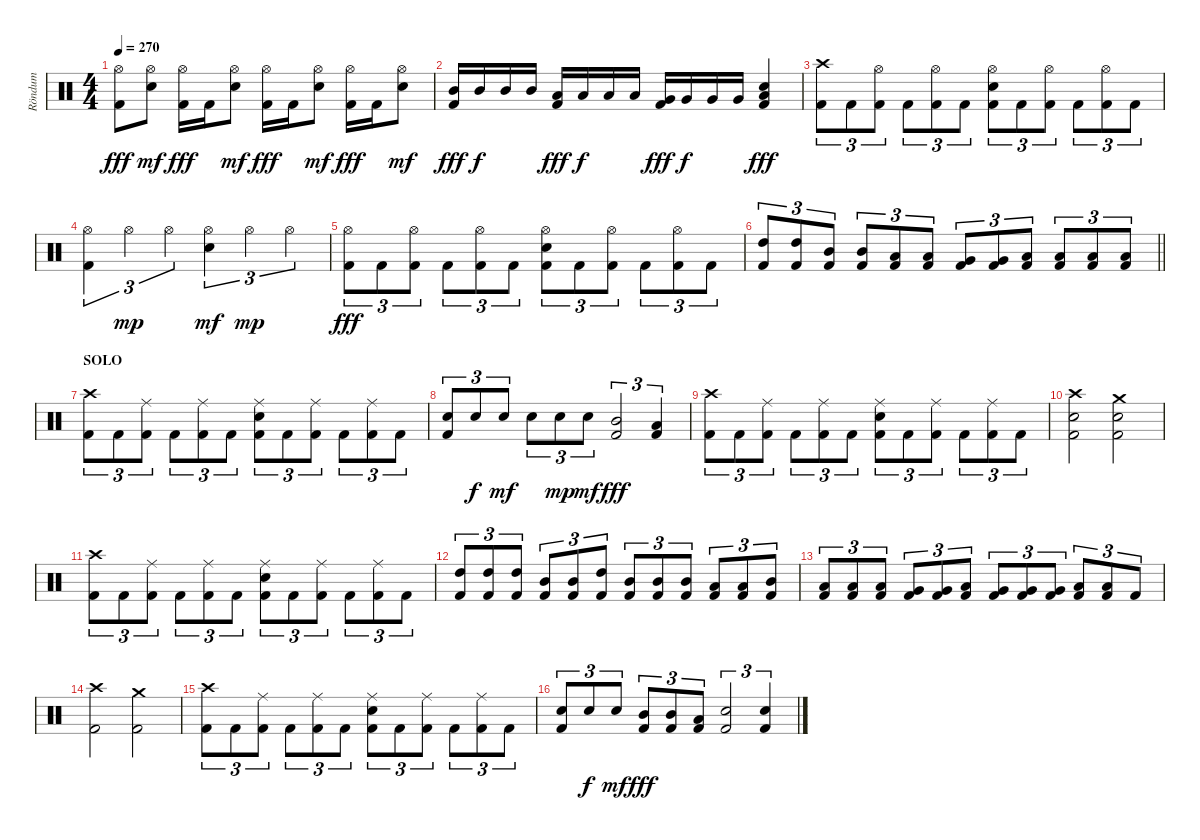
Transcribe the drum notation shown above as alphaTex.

\track ("Röndum" "Röndum") {instrument percussion}
\staff {score}
\articulation defaults
\ts (4 4)
\tempo 270
\clef neutral
\ks c
("Hi-Hat (open)" "Kick (hit) 2").8{dy fff} ("Hi-Hat (open)" "Snare (hit) 2").8{dy mf} ("Hi-Hat (open)" "Kick (hit) 2").16{dy fff} "Kick (hit) 2".16 ("Hi-Hat (open)" "Snare (hit) 2").8{dy mf} ("Hi-Hat (open)" "Kick (hit) 2").16{dy fff} "Kick (hit) 2".16 ("Hi-Hat (open)" "Snare (hit) 2").8{dy mf} ("Hi-Hat (open)" "Kick (hit) 2").16{dy fff} "Kick (hit) 2".16 ("Hi-Hat (open)" "Snare (hit) 2").8{dy mf} |
("Mid Tom (hit)" "Kick (hit) 2").16{dy fff} "Mid Tom (hit)".16{dy f} "Mid Tom (hit)".16 "Mid Tom (hit)".16 ("Low Tom (hit)" "Kick (hit) 2").16{dy fff} "Low Tom (hit)".16{dy f} "Low Tom (hit)".16 "Low Tom (hit)".16 ("Very Low Tom (hit)" "Kick (hit) 2").16{dy fff} "Very Low Tom (hit)".16{dy f} "Very Low Tom (hit)".16 "Very Low Tom (hit)".16 ("Low Floor Tom (hit)" "Snare (hit) 2" "Kick (hit) 2").4{dy fff} |
("Crash high (hit)" "Kick (hit) 2").8{tu (3 2)} "Kick (hit) 2".8{tu (3 2)} ("Hi-Hat (open)" "Kick (hit) 2").8{tu (3 2)} "Kick (hit) 2".8{tu (3 2)} ("Hi-Hat (open)" "Kick (hit) 2").8{tu (3 2)} "Kick (hit) 2".8{tu (3 2)} ("Hi-Hat (open)" "Snare (hit) 2" "Kick (hit) 2").8{tu (3 2)} "Kick (hit) 2".8{tu (3 2)} ("Hi-Hat (open)" "Kick (hit) 2").8{tu (3 2)} "Kick (hit) 2".8{tu (3 2)} ("Hi-Hat (open)" "Kick (hit) 2").8{tu (3 2)} "Kick (hit) 2".8{tu (3 2)} |
("Hi-Hat (open)" "Kick (hit) 2").4{tu (3 2)} "Hi-Hat (open)".4{tu (3 2) dy mp} "Hi-Hat (open)".4{tu (3 2)} ("Hi-Hat (open)" "Snare (hit) 2").4{tu (3 2) dy mf} "Hi-Hat (open)".4{tu (3 2) dy mp} "Hi-Hat (open)".4{tu (3 2)} |
("Hi-Hat (open)" "Kick (hit) 2").8{tu (3 2) dy fff} "Kick (hit) 2".8{tu (3 2)} ("Hi-Hat (open)" "Kick (hit) 2").8{tu (3 2)} "Kick (hit) 2".8{tu (3 2)} ("Hi-Hat (open)" "Kick (hit) 2").8{tu (3 2)} "Kick (hit) 2".8{tu (3 2)} ("Hi-Hat (open)" "Snare (hit) 2" "Kick (hit) 2").8{tu (3 2)} "Kick (hit) 2".8{tu (3 2)} ("Hi-Hat (open)" "Kick (hit) 2").8{tu (3 2)} "Kick (hit) 2".8{tu (3 2)} ("Hi-Hat (open)" "Kick (hit) 2").8{tu (3 2)} "Kick (hit) 2".8{tu (3 2)} |
\barLineRight lightlight
("High Tom (hit)" "Kick (hit) 2").8{tu (3 2)} ("High Tom (hit)" "Kick (hit) 2").8{tu (3 2)} ("Mid Tom (hit)" "Kick (hit) 2").8{tu (3 2)} ("Mid Tom (hit)" "Kick (hit) 2").8{tu (3 2)} ("Low Tom (hit)" "Kick (hit) 2").8{tu (3 2)} ("Low Tom (hit)" "Kick (hit) 2").8{tu (3 2)} ("Very Low Tom (hit)" "Kick (hit) 2").8{tu (3 2)} ("Very Low Tom (hit)" "Kick (hit) 2").8{tu (3 2)} ("Low Floor Tom (hit)" "Kick (hit) 2").8{tu (3 2)} ("Low Floor Tom (hit)" "Kick (hit) 2").8{tu (3 2)} ("Low Floor Tom (hit)" "Kick (hit) 2").8{tu (3 2)} ("Low Floor Tom (hit)" "Kick (hit) 2").8{tu (3 2)} |
\section ("" "SOLO")
("Crash high (hit)" "Kick (hit) 2").8{tu (3 2)} "Kick (hit) 2".8{tu (3 2)} ("Ride (middle)" "Kick (hit) 2").8{tu (3 2)} "Kick (hit) 2".8{tu (3 2)} ("Ride (middle)" "Kick (hit) 2").8{tu (3 2)} "Kick (hit) 2".8{tu (3 2)} ("Ride (middle)" "Snare (hit) 2" "Kick (hit) 2").8{tu (3 2)} "Kick (hit) 2".8{tu (3 2)} ("Ride (middle)" "Kick (hit) 2").8{tu (3 2)} "Kick (hit) 2".8{tu (3 2)} ("Ride (middle)" "Kick (hit) 2").8{tu (3 2)} "Kick (hit) 2".8{tu (3 2)} |
("Snare (hit) 2" "Kick (hit) 2").8{tu (3 2)} "Snare (hit) 2".8{tu (3 2) dy f} "Snare (hit) 2".8{tu (3 2) dy mf} "Snare (hit) 2".8{tu (3 2)} "Snare (hit) 2".8{tu (3 2) dy mp} "Snare (hit) 2".8{tu (3 2) dy mf} ("Mid Tom (hit)" "Kick (hit) 2").2{tu (3 2) dy fff} ("Low Tom (hit)" "Kick (hit) 2").4{tu (3 2)} |
("Crash high (hit)" "Kick (hit) 2").8{tu (3 2)} "Kick (hit) 2".8{tu (3 2)} ("Ride (middle)" "Kick (hit) 2").8{tu (3 2)} "Kick (hit) 2".8{tu (3 2)} ("Ride (middle)" "Kick (hit) 2").8{tu (3 2)} "Kick (hit) 2".8{tu (3 2)} ("Ride (middle)" "Snare (hit) 2" "Kick (hit) 2").8{tu (3 2)} "Kick (hit) 2".8{tu (3 2)} ("Ride (middle)" "Kick (hit) 2").8{tu (3 2)} "Kick (hit) 2".8{tu (3 2)} ("Ride (middle)" "Kick (hit) 2").8{tu (3 2)} "Kick (hit) 2".8{tu (3 2)} |
("Crash high (hit)" "Snare (hit) 2" "Kick (hit) 2").2 ("Crash medium (hit)" "Snare (hit) 2" "Kick (hit) 2").2 |
("Crash high (hit)" "Kick (hit) 2").8{tu (3 2)} "Kick (hit) 2".8{tu (3 2)} ("Ride (middle)" "Kick (hit) 2").8{tu (3 2)} "Kick (hit) 2".8{tu (3 2)} ("Ride (middle)" "Kick (hit) 2").8{tu (3 2)} "Kick (hit) 2".8{tu (3 2)} ("Ride (middle)" "Snare (hit) 2" "Kick (hit) 2").8{tu (3 2)} "Kick (hit) 2".8{tu (3 2)} ("Ride (middle)" "Kick (hit) 2").8{tu (3 2)} "Kick (hit) 2".8{tu (3 2)} ("Ride (middle)" "Kick (hit) 2").8{tu (3 2)} "Kick (hit) 2".8{tu (3 2)} |
("High Tom (hit)" "Kick (hit) 2").8{tu (3 2)} ("High Tom (hit)" "Kick (hit) 2").8{tu (3 2)} ("High Tom (hit)" "Kick (hit) 2").8{tu (3 2)} ("Mid Tom (hit)" "Kick (hit) 2").8{tu (3 2)} ("Mid Tom (hit)" "Kick (hit) 2").8{tu (3 2)} ("High Tom (hit)" "Kick (hit) 2").8{tu (3 2)} ("Mid Tom (hit)" "Kick (hit) 2").8{tu (3 2)} ("Mid Tom (hit)" "Kick (hit) 2").8{tu (3 2)} ("Mid Tom (hit)" "Kick (hit) 2").8{tu (3 2)} ("Low Tom (hit)" "Kick (hit) 2").8{tu (3 2)} ("Low Tom (hit)" "Kick (hit) 2").8{tu (3 2)} ("Mid Tom (hit)" "Kick (hit) 2").8{tu (3 2)} |
("Low Tom (hit)" "Kick (hit) 2").8{tu (3 2)} ("Low Tom (hit)" "Kick (hit) 2").8{tu (3 2)} ("Low Tom (hit)" "Kick (hit) 2").8{tu (3 2)} ("Very Low Tom (hit)" "Kick (hit) 2").8{tu (3 2)} ("Very Low Tom (hit)" "Kick (hit) 2").8{tu (3 2)} ("Low Tom (hit)" "Kick (hit) 2").8{tu (3 2)} ("Very Low Tom (hit)" "Kick (hit) 2").8{tu (3 2)} ("Very Low Tom (hit)" "Kick (hit) 2").8{tu (3 2)} ("Very Low Tom (hit)" "Kick (hit) 2").8{tu (3 2)} ("Low Floor Tom (hit)" "Kick (hit) 2").8{tu (3 2)} ("Low Floor Tom (hit)" "Kick (hit) 2").8{tu (3 2)} "Kick (hit) 2".8{tu (3 2)} |
("Crash high (hit)" "Kick (hit) 2").2 ("Crash medium (hit)" "Kick (hit) 2").2 |
("Crash high (hit)" "Kick (hit) 2").8{tu (3 2)} "Kick (hit) 2".8{tu (3 2)} ("Ride (middle)" "Kick (hit) 2").8{tu (3 2)} "Kick (hit) 2".8{tu (3 2)} ("Ride (middle)" "Kick (hit) 2").8{tu (3 2)} "Kick (hit) 2".8{tu (3 2)} ("Ride (middle)" "Snare (hit) 2" "Kick (hit) 2").8{tu (3 2)} "Kick (hit) 2".8{tu (3 2)} ("Ride (middle)" "Kick (hit) 2").8{tu (3 2)} "Kick (hit) 2".8{tu (3 2)} ("Ride (middle)" "Kick (hit) 2").8{tu (3 2)} "Kick (hit) 2".8{tu (3 2)} |
("Snare (hit) 2" "Kick (hit) 2").8{tu (3 2)} "Snare (hit) 2".8{tu (3 2) dy f} "Snare (hit) 2".8{tu (3 2) dy mf} ("Mid Tom (hit)" "Kick (hit) 2").8{tu (3 2) dy fff} ("Mid Tom (hit)" "Kick (hit) 2").8{tu (3 2)} ("Low Tom (hit)" "Kick (hit) 2").8{tu (3 2)} ("Snare (hit) 2" "Kick (hit) 2").2{tu (3 2)} ("Snare (hit) 2" "Kick (hit) 2").4{tu (3 2)}
